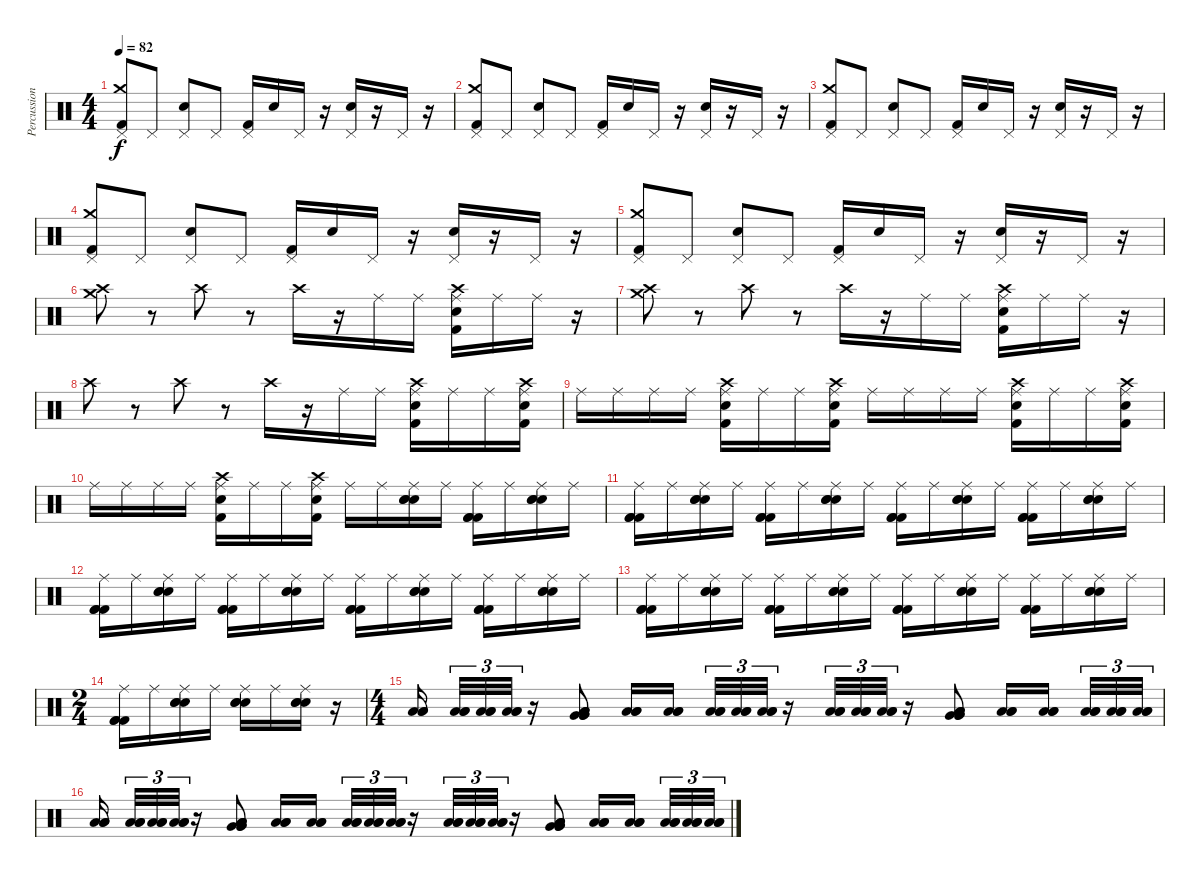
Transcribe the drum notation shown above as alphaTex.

\track ("Percussion" "Percussion") {instrument percussion}
\staff {score}
\articulation defaults
\ts (4 4)
\tempo 82
\clef neutral
\ks c
("Pedal Hi-Hat (hit)" "Crash medium (hit)" "Kick (hit) 2").8{dy f} "Pedal Hi-Hat (hit)".8 ("Pedal Hi-Hat (hit)" "Electric Snare (hit)").8 "Pedal Hi-Hat (hit)".8 ("Pedal Hi-Hat (hit)" "Kick (hit) 2").16 "Electric Snare (hit)".16 "Pedal Hi-Hat (hit)".16 r.16 ("Pedal Hi-Hat (hit)" "Electric Snare (hit)").16 r.16 "Pedal Hi-Hat (hit)".16 r.16 |
("Pedal Hi-Hat (hit)" "Crash medium (hit)" "Kick (hit) 2").8 "Pedal Hi-Hat (hit)".8 ("Pedal Hi-Hat (hit)" "Electric Snare (hit)").8 "Pedal Hi-Hat (hit)".8 ("Pedal Hi-Hat (hit)" "Kick (hit) 2").16 "Electric Snare (hit)".16 "Pedal Hi-Hat (hit)".16 r.16 ("Pedal Hi-Hat (hit)" "Electric Snare (hit)").16 r.16 "Pedal Hi-Hat (hit)".16 r.16 |
("Pedal Hi-Hat (hit)" "Crash medium (hit)" "Kick (hit) 2").8 "Pedal Hi-Hat (hit)".8 ("Pedal Hi-Hat (hit)" "Electric Snare (hit)").8 "Pedal Hi-Hat (hit)".8 ("Pedal Hi-Hat (hit)" "Kick (hit) 2").16 "Electric Snare (hit)".16 "Pedal Hi-Hat (hit)".16 r.16 ("Pedal Hi-Hat (hit)" "Electric Snare (hit)").16 r.16 "Pedal Hi-Hat (hit)".16 r.16 |
("Pedal Hi-Hat (hit)" "Crash medium (hit)" "Kick (hit) 2").8 "Pedal Hi-Hat (hit)".8 ("Pedal Hi-Hat (hit)" "Electric Snare (hit)").8 "Pedal Hi-Hat (hit)".8 ("Pedal Hi-Hat (hit)" "Kick (hit) 2").16 "Electric Snare (hit)".16 "Pedal Hi-Hat (hit)".16 r.16 ("Pedal Hi-Hat (hit)" "Electric Snare (hit)").16 r.16 "Pedal Hi-Hat (hit)".16 r.16 |
("Pedal Hi-Hat (hit)" "Crash medium (hit)" "Kick (hit) 2").8 "Pedal Hi-Hat (hit)".8 ("Pedal Hi-Hat (hit)" "Electric Snare (hit)").8 "Pedal Hi-Hat (hit)".8 ("Pedal Hi-Hat (hit)" "Kick (hit) 2").16 "Electric Snare (hit)".16 "Pedal Hi-Hat (hit)".16 r.16 ("Pedal Hi-Hat (hit)" "Electric Snare (hit)").16 r.16 "Pedal Hi-Hat (hit)".16 r.16 |
("Crash high (hit)" "Crash medium (hit)").8 r.8 "Crash high (hit)".8 r.8 "Crash high (hit)".16 r.16 "Ride (middle)".16 "Ride (middle)".16 ("Crash high (hit)" "Electric Snare (hit)" "Ride (middle)" "Kick (hit) 2").16 "Ride (middle)".16 "Ride (middle)".16 r.16 |
("Crash high (hit)" "Crash medium (hit)").8 r.8 "Crash high (hit)".8 r.8 "Crash high (hit)".16 r.16 "Ride (middle)".16 "Ride (middle)".16 ("Crash high (hit)" "Electric Snare (hit)" "Ride (middle)" "Kick (hit) 2").16 "Ride (middle)".16 "Ride (middle)".16 r.16 |
"Crash high (hit)".8 r.8 "Crash high (hit)".8 r.8 "Crash high (hit)".16 r.16 "Ride (middle)".16 "Ride (middle)".16 ("Crash high (hit)" "Electric Snare (hit)" "Ride (middle)" "Kick (hit) 2").16 "Ride (middle)".16 "Ride (middle)".16 ("Crash high (hit)" "Electric Snare (hit)" "Ride (middle)" "Kick (hit) 2").16 |
"Ride (middle)".16 "Ride (middle)".16 "Ride (middle)".16 "Ride (middle)".16 ("Crash high (hit)" "Electric Snare (hit)" "Ride (middle)" "Kick (hit) 2").16 "Ride (middle)".16 "Ride (middle)".16 ("Crash high (hit)" "Electric Snare (hit)" "Ride (middle)" "Kick (hit) 2").16 "Ride (middle)".16 "Ride (middle)".16 "Ride (middle)".16 "Ride (middle)".16 ("Crash high (hit)" "Electric Snare (hit)" "Ride (middle)" "Kick (hit) 2").16 "Ride (middle)".16 "Ride (middle)".16 ("Crash high (hit)" "Electric Snare (hit)" "Ride (middle)" "Kick (hit) 2").16 |
"Ride (middle)".16 "Ride (middle)".16 "Ride (middle)".16 "Ride (middle)".16 ("Crash high (hit)" "Electric Snare (hit)" "Ride (middle)" "Kick (hit) 2").16 "Ride (middle)".16 "Ride (middle)".16 ("Crash high (hit)" "Electric Snare (hit)" "Ride (middle)" "Kick (hit) 2").16 "Ride (middle)".16 "Ride (middle)".16 ("Electric Snare (hit)" "Electric Snare (hit)" "Ride (middle)" "Electric Snare (hit)").16 "Ride (middle)".16 ("Kick (hit) 2" "Kick (hit) 2" "Ride (middle)" "Kick (hit) 2").16 "Ride (middle)".16 ("Electric Snare (hit)" "Electric Snare (hit)" "Ride (middle)" "Electric Snare (hit)").16 "Ride (middle)".16 |
("Kick (hit) 2" "Kick (hit) 2" "Ride (middle)" "Kick (hit) 2").16 "Ride (middle)".16 ("Electric Snare (hit)" "Electric Snare (hit)" "Ride (middle)" "Electric Snare (hit)").16 "Ride (middle)".16 ("Kick (hit) 2" "Kick (hit) 2" "Ride (middle)" "Kick (hit) 2").16 "Ride (middle)".16 ("Electric Snare (hit)" "Electric Snare (hit)" "Ride (middle)" "Electric Snare (hit)").16 "Ride (middle)".16 ("Kick (hit) 2" "Kick (hit) 2" "Ride (middle)" "Kick (hit) 2").16 "Ride (middle)".16 ("Electric Snare (hit)" "Electric Snare (hit)" "Ride (middle)" "Electric Snare (hit)").16 "Ride (middle)".16 ("Kick (hit) 2" "Kick (hit) 2" "Ride (middle)" "Kick (hit) 2").16 "Ride (middle)".16 ("Electric Snare (hit)" "Electric Snare (hit)" "Ride (middle)" "Electric Snare (hit)").16 "Ride (middle)".16 |
("Kick (hit) 2" "Kick (hit) 2" "Ride (middle)" "Kick (hit) 2").16 "Ride (middle)".16 ("Electric Snare (hit)" "Electric Snare (hit)" "Ride (middle)" "Electric Snare (hit)").16 "Ride (middle)".16 ("Kick (hit) 2" "Kick (hit) 2" "Ride (middle)" "Kick (hit) 2").16 "Ride (middle)".16 ("Electric Snare (hit)" "Electric Snare (hit)" "Ride (middle)" "Electric Snare (hit)").16 "Ride (middle)".16 ("Kick (hit) 2" "Kick (hit) 2" "Ride (middle)" "Kick (hit) 2").16 "Ride (middle)".16 ("Electric Snare (hit)" "Electric Snare (hit)" "Ride (middle)" "Electric Snare (hit)").16 "Ride (middle)".16 ("Kick (hit) 2" "Kick (hit) 2" "Ride (middle)" "Kick (hit) 2").16 "Ride (middle)".16 ("Electric Snare (hit)" "Electric Snare (hit)" "Ride (middle)" "Electric Snare (hit)").16 "Ride (middle)".16 |
("Kick (hit) 2" "Kick (hit) 2" "Ride (middle)" "Kick (hit) 2").16 "Ride (middle)".16 ("Electric Snare (hit)" "Electric Snare (hit)" "Ride (middle)" "Electric Snare (hit)").16 "Ride (middle)".16 ("Kick (hit) 2" "Kick (hit) 2" "Ride (middle)" "Kick (hit) 2").16 "Ride (middle)".16 ("Electric Snare (hit)" "Electric Snare (hit)" "Ride (middle)" "Electric Snare (hit)").16 "Ride (middle)".16 ("Kick (hit) 2" "Kick (hit) 2" "Ride (middle)" "Kick (hit) 2").16 "Ride (middle)".16 ("Electric Snare (hit)" "Electric Snare (hit)" "Ride (middle)" "Electric Snare (hit)").16 "Ride (middle)".16 ("Kick (hit) 2" "Kick (hit) 2" "Ride (middle)" "Kick (hit) 2").16 "Ride (middle)".16 ("Electric Snare (hit)" "Electric Snare (hit)" "Ride (middle)" "Electric Snare (hit)").16 "Ride (middle)".16 |
\ts (2 4)
("Kick (hit) 2" "Kick (hit) 2" "Ride (middle)" "Kick (hit) 2").16 "Ride (middle)".16 ("Electric Snare (hit)" "Electric Snare (hit)" "Ride (middle)" "Electric Snare (hit)").16 "Ride (middle)".16 ("Electric Snare (hit)" "Electric Snare (hit)" "Ride (middle)" "Electric Snare (hit)").16 "Ride (middle)".16 ("Electric Snare (hit)" "Electric Snare (hit)" "Ride (middle)" "Electric Snare (hit)").16 r.16 |
\ts (4 4)
("Low Tom (hit)" "Low Tom (hit)" "Low Tom (hit)").16 ("Low Tom (hit)" "Low Tom (hit)" "Low Tom (hit)").32{tu (3 2)} ("Low Tom (hit)" "Low Tom (hit)" "Low Tom (hit)").32{tu (3 2)} ("Low Tom (hit)" "Low Tom (hit)" "Low Tom (hit)").32{tu (3 2)} r.16 ("Very Low Tom (hit)" "Very Low Tom (hit)" "Low Tom (hit)" "Low Tom (hit)" "Low Tom (hit)" "Very Low Tom (hit)").8 ("Low Tom (hit)" "Low Tom (hit)" "Low Tom (hit)").16 ("Low Tom (hit)" "Low Tom (hit)" "Low Tom (hit)").16 ("Low Tom (hit)" "Low Tom (hit)" "Low Tom (hit)").32{tu (3 2)} ("Low Tom (hit)" "Low Tom (hit)" "Low Tom (hit)").32{tu (3 2)} ("Low Tom (hit)" "Low Tom (hit)" "Low Tom (hit)").32{tu (3 2)} r.16 ("Low Tom (hit)" "Low Tom (hit)" "Low Tom (hit)").32{tu (3 2)} ("Low Tom (hit)" "Low Tom (hit)" "Low Tom (hit)").32{tu (3 2)} ("Low Tom (hit)" "Low Tom (hit)" "Low Tom (hit)").32{tu (3 2)} r.16 ("Very Low Tom (hit)" "Very Low Tom (hit)" "Low Tom (hit)" "Low Tom (hit)" "Low Tom (hit)" "Very Low Tom (hit)").8 ("Low Tom (hit)" "Low Tom (hit)" "Low Tom (hit)").16 ("Low Tom (hit)" "Low Tom (hit)" "Low Tom (hit)").16 ("Low Tom (hit)" "Low Tom (hit)" "Low Tom (hit)").32{tu (3 2)} ("Low Tom (hit)" "Low Tom (hit)" "Low Tom (hit)").32{tu (3 2)} ("Low Tom (hit)" "Low Tom (hit)" "Low Tom (hit)").32{tu (3 2)} |
("Low Tom (hit)" "Low Tom (hit)" "Low Tom (hit)").16 ("Low Tom (hit)" "Low Tom (hit)" "Low Tom (hit)").32{tu (3 2)} ("Low Tom (hit)" "Low Tom (hit)" "Low Tom (hit)").32{tu (3 2)} ("Low Tom (hit)" "Low Tom (hit)" "Low Tom (hit)").32{tu (3 2)} r.16 ("Very Low Tom (hit)" "Very Low Tom (hit)" "Low Tom (hit)" "Low Tom (hit)" "Low Tom (hit)" "Very Low Tom (hit)").8 ("Low Tom (hit)" "Low Tom (hit)" "Low Tom (hit)").16 ("Low Tom (hit)" "Low Tom (hit)" "Low Tom (hit)").16 ("Low Tom (hit)" "Low Tom (hit)" "Low Tom (hit)").32{tu (3 2)} ("Low Tom (hit)" "Low Tom (hit)" "Low Tom (hit)").32{tu (3 2)} ("Low Tom (hit)" "Low Tom (hit)" "Low Tom (hit)").32{tu (3 2)} r.16 ("Low Tom (hit)" "Low Tom (hit)" "Low Tom (hit)").32{tu (3 2)} ("Low Tom (hit)" "Low Tom (hit)" "Low Tom (hit)").32{tu (3 2)} ("Low Tom (hit)" "Low Tom (hit)" "Low Tom (hit)").32{tu (3 2)} r.16 ("Very Low Tom (hit)" "Very Low Tom (hit)" "Low Tom (hit)" "Low Tom (hit)" "Low Tom (hit)" "Very Low Tom (hit)").8 ("Low Tom (hit)" "Low Tom (hit)" "Low Tom (hit)").16 ("Low Tom (hit)" "Low Tom (hit)" "Low Tom (hit)").16 ("Low Tom (hit)" "Low Tom (hit)" "Low Tom (hit)").32{tu (3 2)} ("Low Tom (hit)" "Low Tom (hit)" "Low Tom (hit)").32{tu (3 2)} ("Low Tom (hit)" "Low Tom (hit)" "Low Tom (hit)").32{tu (3 2)}
